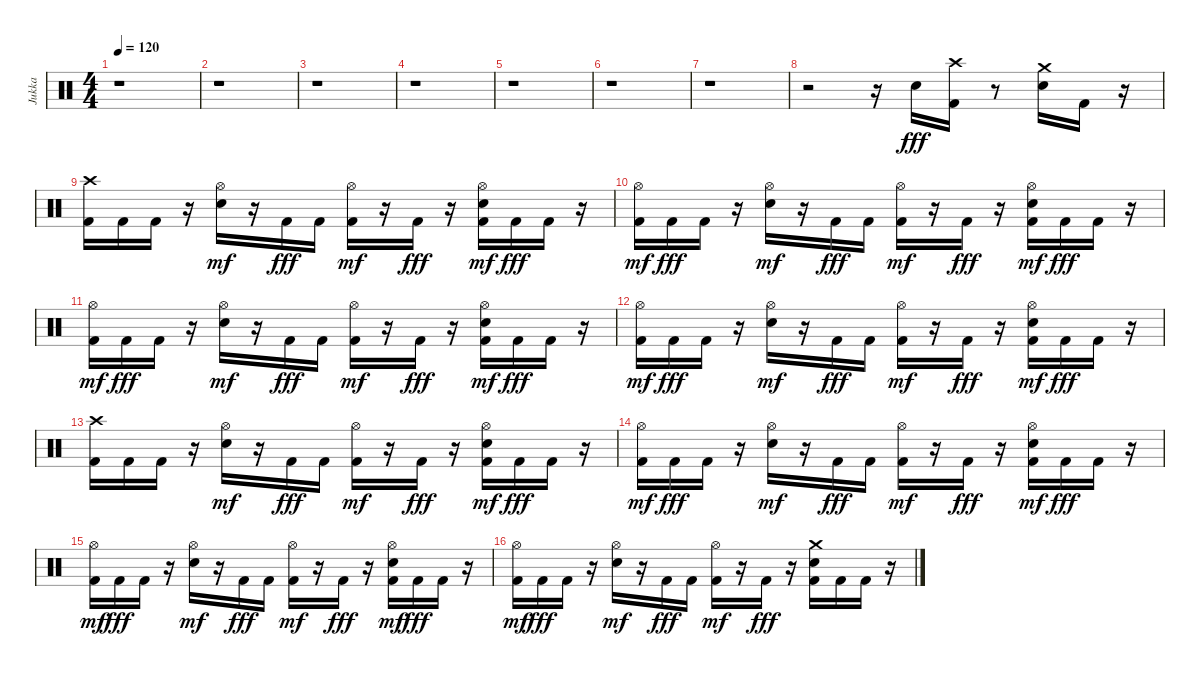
\track ("Jukka" "Jukka") {instrument percussion}
\staff {score}
\articulation defaults
\ts (4 4)
\tempo 120
\clef neutral
\ks c
r.1{dy fff} |
r.1 |
r.1 |
r.1 |
r.1 |
r.1 |
r.1 |
r.2 r.16 "Electric Snare (hit)".16 ("Kick (hit) 2" "Crash high (hit)").16 r.8 ("Electric Snare (hit)" "Crash medium (hit)").16 "Kick (hit) 2".16 r.16 |
("Kick (hit) 2" "Crash high (hit)").16 "Kick (hit) 2".16 "Kick (hit) 2".16 r.16 ("Electric Snare (hit)" "Hi-Hat (open)").16{dy mf} r.16 "Kick (hit) 2".16{dy fff} "Kick (hit) 2".16 ("Kick (hit) 2" "Hi-Hat (open)").16{dy mf} r.16 "Kick (hit) 2".16{dy fff} r.16 ("Electric Snare (hit)" "Kick (hit) 2" "Hi-Hat (open)").16{dy mf} "Kick (hit) 2".16{dy fff} "Kick (hit) 2".16 r.16 |
("Kick (hit) 2" "Hi-Hat (open)").16{dy mf} "Kick (hit) 2".16{dy fff} "Kick (hit) 2".16 r.16 ("Electric Snare (hit)" "Hi-Hat (open)").16{dy mf} r.16 "Kick (hit) 2".16{dy fff} "Kick (hit) 2".16 ("Kick (hit) 2" "Hi-Hat (open)").16{dy mf} r.16 "Kick (hit) 2".16{dy fff} r.16 ("Electric Snare (hit)" "Kick (hit) 2" "Hi-Hat (open)").16{dy mf} "Kick (hit) 2".16{dy fff} "Kick (hit) 2".16 r.16 |
("Kick (hit) 2" "Hi-Hat (open)").16{dy mf} "Kick (hit) 2".16{dy fff} "Kick (hit) 2".16 r.16 ("Electric Snare (hit)" "Hi-Hat (open)").16{dy mf} r.16 "Kick (hit) 2".16{dy fff} "Kick (hit) 2".16 ("Kick (hit) 2" "Hi-Hat (open)").16{dy mf} r.16 "Kick (hit) 2".16{dy fff} r.16 ("Electric Snare (hit)" "Kick (hit) 2" "Hi-Hat (open)").16{dy mf} "Kick (hit) 2".16{dy fff} "Kick (hit) 2".16 r.16 |
("Kick (hit) 2" "Hi-Hat (open)").16{dy mf} "Kick (hit) 2".16{dy fff} "Kick (hit) 2".16 r.16 ("Electric Snare (hit)" "Hi-Hat (open)").16{dy mf} r.16 "Kick (hit) 2".16{dy fff} "Kick (hit) 2".16 ("Kick (hit) 2" "Hi-Hat (open)").16{dy mf} r.16 "Kick (hit) 2".16{dy fff} r.16 ("Electric Snare (hit)" "Kick (hit) 2" "Hi-Hat (open)").16{dy mf} "Kick (hit) 2".16{dy fff} "Kick (hit) 2".16 r.16 |
("Kick (hit) 2" "Crash high (hit)").16 "Kick (hit) 2".16 "Kick (hit) 2".16 r.16 ("Electric Snare (hit)" "Hi-Hat (open)").16{dy mf} r.16 "Kick (hit) 2".16{dy fff} "Kick (hit) 2".16 ("Kick (hit) 2" "Hi-Hat (open)").16{dy mf} r.16 "Kick (hit) 2".16{dy fff} r.16 ("Electric Snare (hit)" "Kick (hit) 2" "Hi-Hat (open)").16{dy mf} "Kick (hit) 2".16{dy fff} "Kick (hit) 2".16 r.16 |
("Kick (hit) 2" "Hi-Hat (open)").16{dy mf} "Kick (hit) 2".16{dy fff} "Kick (hit) 2".16 r.16 ("Electric Snare (hit)" "Hi-Hat (open)").16{dy mf} r.16 "Kick (hit) 2".16{dy fff} "Kick (hit) 2".16 ("Kick (hit) 2" "Hi-Hat (open)").16{dy mf} r.16 "Kick (hit) 2".16{dy fff} r.16 ("Electric Snare (hit)" "Kick (hit) 2" "Hi-Hat (open)").16{dy mf} "Kick (hit) 2".16{dy fff} "Kick (hit) 2".16 r.16 |
("Kick (hit) 2" "Hi-Hat (open)").16{dy mf} "Kick (hit) 2".16{dy fff} "Kick (hit) 2".16 r.16 ("Electric Snare (hit)" "Hi-Hat (open)").16{dy mf} r.16 "Kick (hit) 2".16{dy fff} "Kick (hit) 2".16 ("Kick (hit) 2" "Hi-Hat (open)").16{dy mf} r.16 "Kick (hit) 2".16{dy fff} r.16 ("Electric Snare (hit)" "Kick (hit) 2" "Hi-Hat (open)").16{dy mf} "Kick (hit) 2".16{dy fff} "Kick (hit) 2".16 r.16 |
("Kick (hit) 2" "Hi-Hat (open)").16{dy mf} "Kick (hit) 2".16{dy fff} "Kick (hit) 2".16 r.16 ("Electric Snare (hit)" "Hi-Hat (open)").16{dy mf} r.16 "Kick (hit) 2".16{dy fff} "Kick (hit) 2".16 ("Kick (hit) 2" "Hi-Hat (open)").16{dy mf} r.16 "Kick (hit) 2".16{dy fff} r.16 ("Electric Snare (hit)" "Kick (hit) 2" "Crash medium (hit)").16 "Kick (hit) 2".16 "Kick (hit) 2".16 r.16
